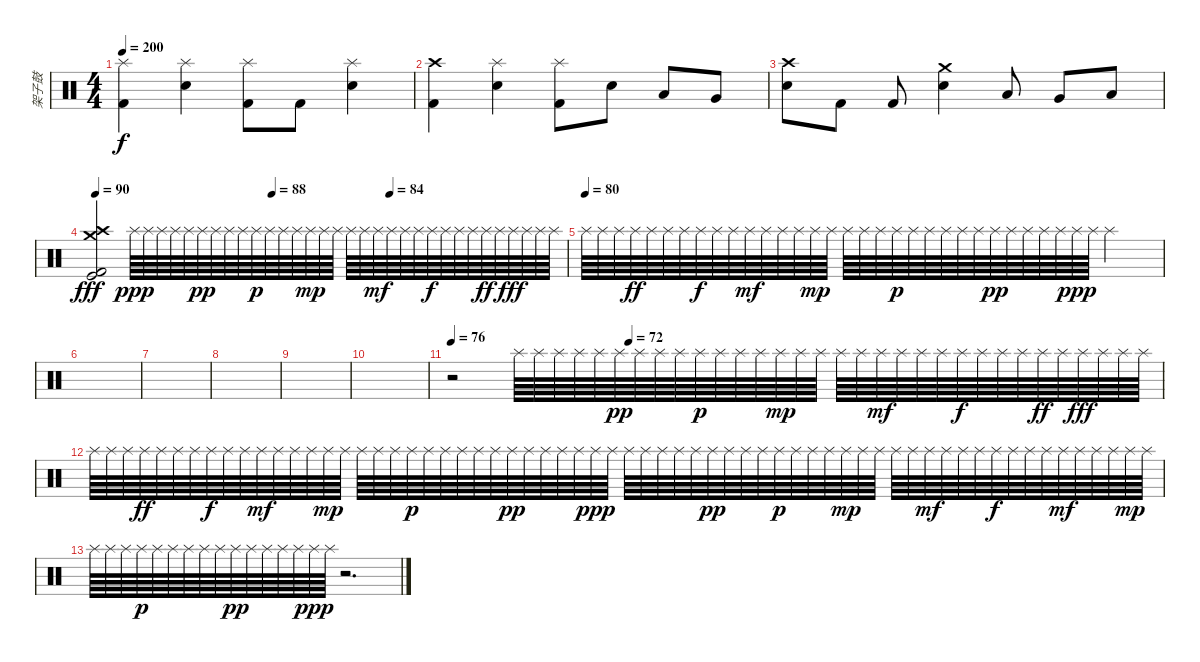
\track ("架子鼓" "架子鼓") {instrument percussion}
\staff {score}
\articulation defaults
\ts (4 4)
\tempo 200
\clef neutral
\ks c
("Splash (hit)" "Kick (hit) 2").4{dy f} ("Splash (hit)" "Snare (hit) 2").4 ("Splash (hit)" "Kick (hit) 2").8 "Kick (hit) 2".8 ("Splash (hit)" "Snare (hit) 2").4 |
("Crash high (hit)" "Kick (hit) 2").4 ("Splash (hit)" "Snare (hit) 2").4 ("Splash (hit)" "Kick (hit) 2").8 "Snare (hit) 2".8 "Low Tom (hit)".8 "Very Low Tom (hit)".8 |
("Crash high (hit)" "Snare (hit) 2").8 "Kick (hit) 2".8 "Kick (hit) 2".8 ("Crash medium (hit)" "Snare (hit) 2").4 "Low Tom (hit)".8 "Very Low Tom (hit)".8 "Low Floor Tom (hit)".8 |
\tempo 92
\tempo (88 0.375)
\tempo (84 0.625)
\tempo 90
("Crash medium (hit)" "Crash high (hit)" "Kick (hit)" "Kick (hit) 2").2{dy fff} "Splash (hit)".64{dy ppp} "Splash (hit)".64 "Splash (hit)".64 "Splash (hit)".64 "Splash (hit)".64 "Splash (hit)".64{dy pp} "Splash (hit)".64 "Splash (hit)".64 "Splash (hit)".64 "Splash (hit)".64{dy p} "Splash (hit)".64 "Splash (hit)".64 "Splash (hit)".64 "Splash (hit)".64{dy mp} "Splash (hit)".64 "Splash (hit)".64 "Splash (hit)".64 "Splash (hit)".64 "Splash (hit)".64{dy mf} "Splash (hit)".64 "Splash (hit)".64 "Splash (hit)".64 "Splash (hit)".64{dy f} "Splash (hit)".64 "Splash (hit)".64 "Splash (hit)".64 "Splash (hit)".64{dy ff} "Splash (hit)".64 "Splash (hit)".64{dy fff} "Splash (hit)".64 "Splash (hit)".64 "Splash (hit)".64 |
\tempo (80)
"Splash (hit)".64 "Splash (hit)".64 "Splash (hit)".64 "Splash (hit)".64{dy ff} "Splash (hit)".64 "Splash (hit)".64 "Splash (hit)".64 "Splash (hit)".64{dy f} "Splash (hit)".64 "Splash (hit)".64 "Splash (hit)".64{dy mf} "Splash (hit)".64 "Splash (hit)".64 "Splash (hit)".64 "Splash (hit)".64{dy mp} "Splash (hit)".64 "Splash (hit)".64 "Splash (hit)".64 "Splash (hit)".64 "Splash (hit)".64{dy p} "Splash (hit)".64 "Splash (hit)".64 "Splash (hit)".64 "Splash (hit)".64 "Splash (hit)".64 "Splash (hit)".64{dy pp} "Splash (hit)".64 "Splash (hit)".64 "Splash (hit)".64 "Splash (hit)".64 "Splash (hit)".64{dy ppp} "Splash (hit)".64 "Splash (hit)".2 |
|
|
|
|
|
\tempo 76
\tempo (72 0.25)
r.2 "Splash (hit)".64 "Splash (hit)".64 "Splash (hit)".64 "Splash (hit)".64 "Splash (hit)".64 "Splash (hit)".64{dy pp} "Splash (hit)".64 "Splash (hit)".64 "Splash (hit)".64 "Splash (hit)".64{dy p} "Splash (hit)".64 "Splash (hit)".64 "Splash (hit)".64 "Splash (hit)".64{dy mp} "Splash (hit)".64 "Splash (hit)".64 "Splash (hit)".64 "Splash (hit)".64 "Splash (hit)".64{dy mf} "Splash (hit)".64 "Splash (hit)".64 "Splash (hit)".64 "Splash (hit)".64{dy f} "Splash (hit)".64 "Splash (hit)".64 "Splash (hit)".64 "Splash (hit)".64{dy ff} "Splash (hit)".64 "Splash (hit)".64{dy fff} "Splash (hit)".64 "Splash (hit)".64 "Splash (hit)".64 |
"Splash (hit)".64 "Splash (hit)".64 "Splash (hit)".64 "Splash (hit)".64{dy ff} "Splash (hit)".64 "Splash (hit)".64 "Splash (hit)".64 "Splash (hit)".64{dy f} "Splash (hit)".64 "Splash (hit)".64 "Splash (hit)".64{dy mf} "Splash (hit)".64 "Splash (hit)".64 "Splash (hit)".64 "Splash (hit)".64{dy mp} "Splash (hit)".64 "Splash (hit)".64 "Splash (hit)".64 "Splash (hit)".64 "Splash (hit)".64{dy p} "Splash (hit)".64 "Splash (hit)".64 "Splash (hit)".64 "Splash (hit)".64 "Splash (hit)".64 "Splash (hit)".64{dy pp} "Splash (hit)".64 "Splash (hit)".64 "Splash (hit)".64 "Splash (hit)".64 "Splash (hit)".64{dy ppp} "Splash (hit)".64 "Splash (hit)".64 "Splash (hit)".64 "Splash (hit)".64 "Splash (hit)".64 "Splash (hit)".64 "Splash (hit)".64{dy pp} "Splash (hit)".64 "Splash (hit)".64 "Splash (hit)".64 "Splash (hit)".64{dy p} "Splash (hit)".64 "Splash (hit)".64 "Splash (hit)".64 "Splash (hit)".64{dy mp} "Splash (hit)".64 "Splash (hit)".64 "Splash (hit)".64 "Splash (hit)".64 "Splash (hit)".64{dy mf} "Splash (hit)".64 "Splash (hit)".64 "Splash (hit)".64 "Splash (hit)".64{dy f} "Splash (hit)".64 "Splash (hit)".64 "Splash (hit)".64 "Splash (hit)".64{dy mf} "Splash (hit)".64 "Splash (hit)".64 "Splash (hit)".64 "Splash (hit)".64{dy mp} "Splash (hit)".64 |
"Splash (hit)".64 "Splash (hit)".64 "Splash (hit)".64 "Splash (hit)".64{dy p} "Splash (hit)".64 "Splash (hit)".64 "Splash (hit)".64 "Splash (hit)".64 "Splash (hit)".64 "Splash (hit)".64{dy pp} "Splash (hit)".64 "Splash (hit)".64 "Splash (hit)".64 "Splash (hit)".64 "Splash (hit)".64{dy ppp} "Splash (hit)".64 r.2{d}
